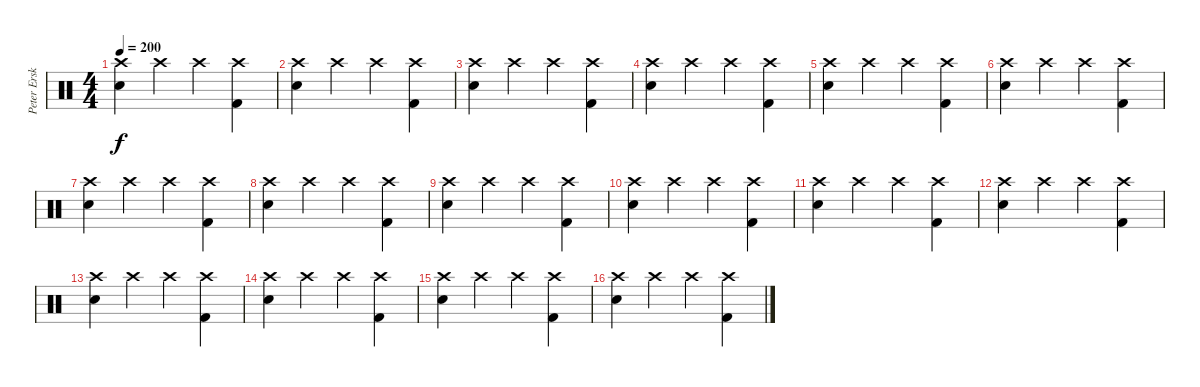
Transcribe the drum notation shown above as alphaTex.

\track ("Peter Erskine" "Peter Ersk") {instrument percussion}
\staff {score}
\articulation defaults
\ts (4 4)
\tempo 200
\clef neutral
\ks c
("Crash high (hit)" "Snare (hit) 2").4{dy f} "Crash high (hit)".4 "Crash high (hit)".4 ("Crash high (hit)" "Kick (hit) 2").4 |
("Crash high (hit)" "Snare (hit) 2").4 "Crash high (hit)".4 "Crash high (hit)".4 ("Crash high (hit)" "Kick (hit) 2").4 |
("Crash high (hit)" "Snare (hit) 2").4 "Crash high (hit)".4 "Crash high (hit)".4 ("Crash high (hit)" "Kick (hit) 2").4 |
("Crash high (hit)" "Snare (hit) 2").4 "Crash high (hit)".4 "Crash high (hit)".4 ("Crash high (hit)" "Kick (hit) 2").4 |
("Crash high (hit)" "Snare (hit) 2").4 "Crash high (hit)".4 "Crash high (hit)".4 ("Crash high (hit)" "Kick (hit) 2").4 |
("Crash high (hit)" "Snare (hit) 2").4 "Crash high (hit)".4 "Crash high (hit)".4 ("Crash high (hit)" "Kick (hit) 2").4 |
("Crash high (hit)" "Snare (hit) 2").4 "Crash high (hit)".4 "Crash high (hit)".4 ("Crash high (hit)" "Kick (hit) 2").4 |
("Crash high (hit)" "Snare (hit) 2").4 "Crash high (hit)".4 "Crash high (hit)".4 ("Crash high (hit)" "Kick (hit) 2").4 |
("Crash high (hit)" "Snare (hit) 2").4 "Crash high (hit)".4 "Crash high (hit)".4 ("Crash high (hit)" "Kick (hit) 2").4 |
("Crash high (hit)" "Snare (hit) 2").4 "Crash high (hit)".4 "Crash high (hit)".4 ("Crash high (hit)" "Kick (hit) 2").4 |
("Crash high (hit)" "Snare (hit) 2").4 "Crash high (hit)".4 "Crash high (hit)".4 ("Crash high (hit)" "Kick (hit) 2").4 |
("Crash high (hit)" "Snare (hit) 2").4 "Crash high (hit)".4 "Crash high (hit)".4 ("Crash high (hit)" "Kick (hit) 2").4 |
("Crash high (hit)" "Snare (hit) 2").4 "Crash high (hit)".4 "Crash high (hit)".4 ("Crash high (hit)" "Kick (hit) 2").4 |
("Crash high (hit)" "Snare (hit) 2").4 "Crash high (hit)".4 "Crash high (hit)".4 ("Crash high (hit)" "Kick (hit) 2").4 |
("Crash high (hit)" "Snare (hit) 2").4 "Crash high (hit)".4 "Crash high (hit)".4 ("Crash high (hit)" "Kick (hit) 2").4 |
("Crash high (hit)" "Snare (hit) 2").4 "Crash high (hit)".4 "Crash high (hit)".4 ("Crash high (hit)" "Kick (hit) 2").4
